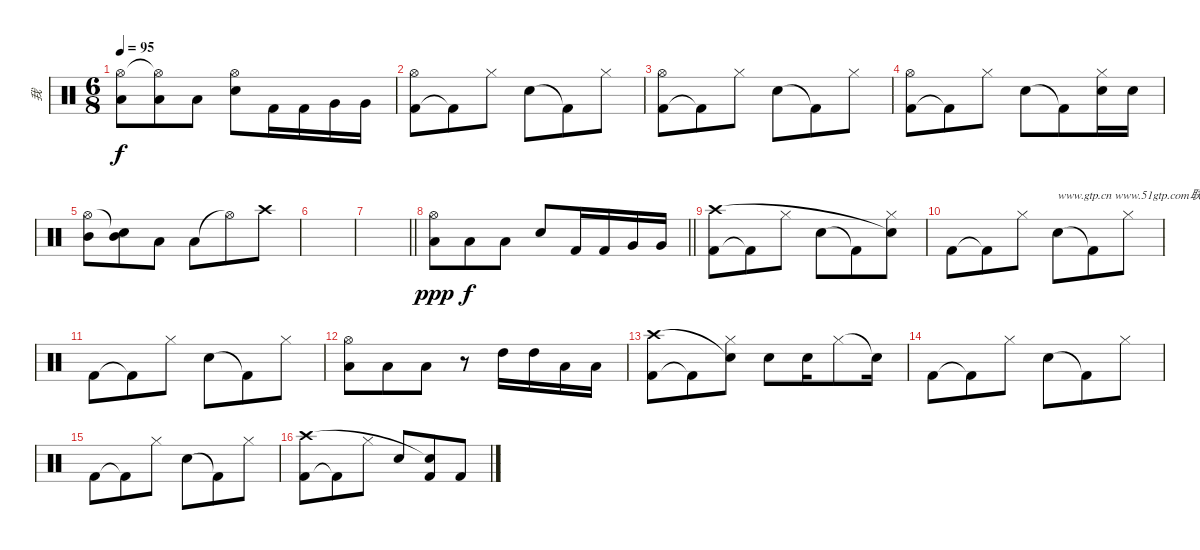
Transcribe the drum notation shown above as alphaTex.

\track ("我" "我") {instrument percussion}
\staff {score}
\articulation defaults
\ts (6 8)
\tempo 95
\clef neutral
\ks c
("Low Tom (hit)" "Hi-Hat (open)").8{dy f} ("Low Tom (hit)" "Hi-Hat (open)"{t}).8 "Low Tom (hit)".8 ("Snare (hit) 2" "Hi-Hat (open)").8 "Kick (hit) 2".16 "Kick (hit) 2".16 "Very Low Tom (hit)".16 "Very Low Tom (hit)".16 |
("Kick (hit) 2" "Hi-Hat (open)").8 "Kick (hit) 2"{t}.8 "Hi-Hat (closed)".8 "Electric Snare (hit)".8 "Kick (hit) 2"{t}.8 "Hi-Hat (closed)".8 |
("Kick (hit) 2" "Hi-Hat (open)").8 "Kick (hit) 2"{t}.8 "Hi-Hat (closed)".8 "Electric Snare (hit)".8 "Kick (hit) 2"{t}.8 "Hi-Hat (closed)".8 |
("Kick (hit) 2" "Hi-Hat (open)").8 "Kick (hit) 2"{t}.8 "Hi-Hat (closed)".8 "Electric Snare (hit)".8 "Kick (hit) 2"{t}.8 ("Hi-Hat (closed)" "Electric Snare (hit)").16 "Electric Snare (hit)".16 |
("Mid Tom (hit)" "Hi-Hat (open)").8 ("Mid Tom (hit)" "Snare (hit)"{t}).8 "Low Tom (hit)".8 "Low Tom (hit)".8 "Hi-Hat (open)"{t}.8 "Crash high (hit)".8 |
|
\barLineRight lightlight
|
\barLineRight lightlight
("Low Tom (hit)" "Hi-Hat (open)").8{dy ppp} "Low Tom (hit)".8{dy f} "Low Tom (hit)".8 "Snare (hit) 2".8 "Kick (hit) 2".16 "Kick (hit) 2".16 "Very Low Tom (hit)".16 "Very Low Tom (hit)".16 |
("Kick (hit) 2" "Crash high (hit)").8 "Kick (hit) 2"{t}.8 "Hi-Hat (closed)".8 "Electric Snare (hit)".8 "Kick (hit) 2"{t}.8 ("Hi-Hat (closed)" "Snare (hit)"{t}).8 |
"Kick (hit) 2".8 "Kick (hit) 2"{t}.8 "Hi-Hat (closed)".8 "Electric Snare (hit)".8{txt "www.gtp.cn www.51gtp.com联合为您提供优秀的GTP!"} "Kick (hit) 2"{t}.8 "Hi-Hat (closed)".8 |
"Kick (hit) 2".8 "Kick (hit) 2"{t}.8 "Hi-Hat (closed)".8 "Electric Snare (hit)".8 "Kick (hit) 2"{t}.8 "Hi-Hat (closed)".8 |
("Low Tom (hit)" "Hi-Hat (open)").8 "Low Tom (hit)".8 "Low Tom (hit)".8 r.8 "High Tom (hit)".16 "High Tom (hit)".16 "Low Tom (hit)".16 "Low Tom (hit)".16 |
("Kick (hit) 2" "Crash high (hit)").8 "Kick (hit) 2"{t}.8 ("Hi-Hat (closed)" "Snare (hit)"{t}).8 "Electric Snare (hit)".8 "Electric Snare (hit)".16 "Hi-Hat (closed)".8 "Snare (hit)"{t}.16 |
"Kick (hit) 2".8 "Kick (hit) 2"{t}.8 "Hi-Hat (closed)".8 "Electric Snare (hit)".8 "Kick (hit) 2"{t}.8 "Hi-Hat (closed)".8 |
"Kick (hit) 2".8 "Kick (hit) 2"{t}.8 "Hi-Hat (closed)".8 "Electric Snare (hit)".8 "Kick (hit) 2"{t}.8 "Hi-Hat (closed)".8 |
("Kick (hit) 2" "Crash high (hit)").8 "Kick (hit) 2"{t}.8 "Hi-Hat (closed)".8 "Electric Snare (hit)".8 ("Kick (hit) 2" "Snare (hit)"{t}).8 "Kick (hit) 2".8
